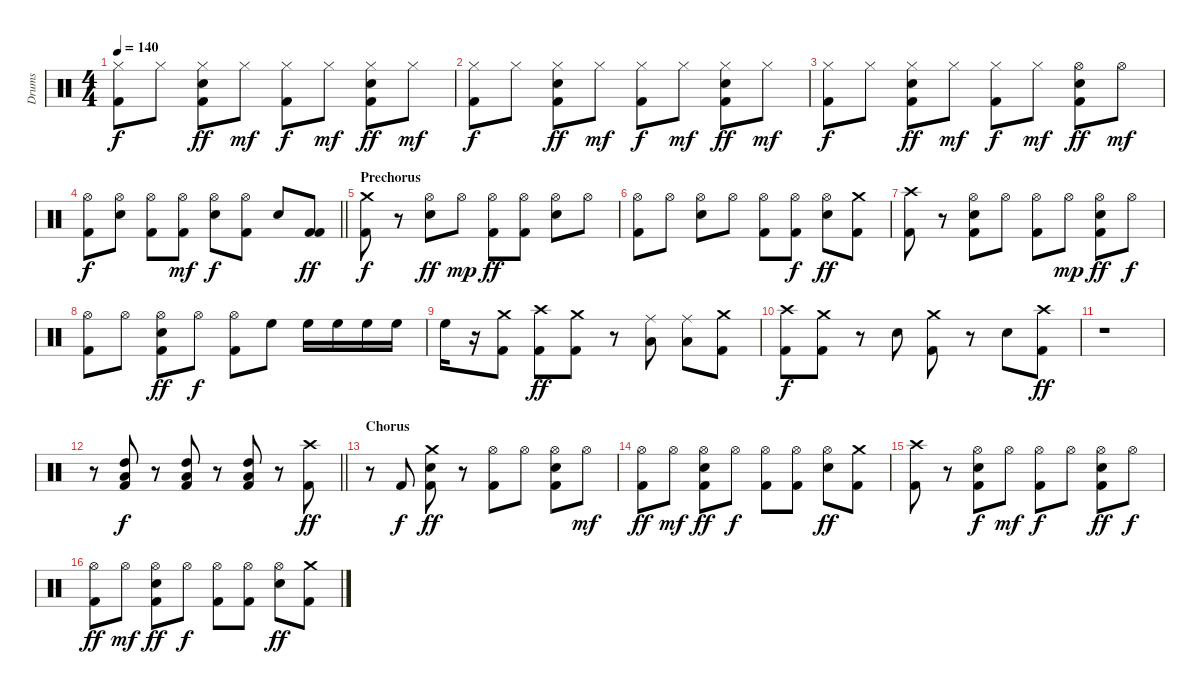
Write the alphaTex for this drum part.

\track ("Drums" "Drums") {instrument percussion}
\staff {score}
\articulation defaults
\ts (4 4)
\tempo 140
\clef neutral
\ks c
("Hi-Hat (closed)" "Kick (hit) 2").8{dy f} "Hi-Hat (closed)".8 ("Hi-Hat (closed)" "Electric Snare (hit)" "Kick (hit) 2").8{dy ff} "Hi-Hat (closed)".8{dy mf} ("Hi-Hat (closed)" "Kick (hit) 2").8{dy f} "Hi-Hat (closed)".8{dy mf} ("Hi-Hat (closed)" "Electric Snare (hit)" "Kick (hit) 2").8{dy ff} "Hi-Hat (closed)".8{dy mf} |
("Hi-Hat (closed)" "Kick (hit) 2").8{dy f} "Hi-Hat (closed)".8 ("Hi-Hat (closed)" "Electric Snare (hit)" "Kick (hit) 2").8{dy ff} "Hi-Hat (closed)".8{dy mf} ("Hi-Hat (closed)" "Kick (hit) 2").8{dy f} "Hi-Hat (closed)".8{dy mf} ("Hi-Hat (closed)" "Electric Snare (hit)" "Kick (hit) 2").8{dy ff} "Hi-Hat (closed)".8{dy mf} |
("Hi-Hat (closed)" "Kick (hit) 2").8{dy f} "Hi-Hat (closed)".8 ("Hi-Hat (closed)" "Electric Snare (hit)" "Kick (hit) 2").8{dy ff} "Hi-Hat (closed)".8{dy mf} ("Hi-Hat (closed)" "Kick (hit) 2").8{dy f} "Hi-Hat (closed)".8{dy mf} ("Hi-Hat (open)" "Electric Snare (hit)" "Kick (hit) 2").8{dy ff} "Hi-Hat (open)".8{dy mf} |
\barLineRight lightlight
("Hi-Hat (open)" "Kick (hit) 2").8{dy f} ("Hi-Hat (open)" "Electric Snare (hit)").8 ("Hi-Hat (open)" "Kick (hit) 2").8 ("Hi-Hat (open)" "Kick (hit) 2").8{dy mf} ("Hi-Hat (open)" "Electric Snare (hit)").8{dy f} ("Hi-Hat (open)" "Kick (hit) 2").8 "Electric Snare (hit)".8 ("Kick (hit) 2" "Kick (hit) 2").8{dy ff} |
\section ("" "Prechorus")
("Crash medium (hit)" "Kick (hit) 2").8{dy f} r.8 ("Hi-Hat (open)" "Electric Snare (hit)").8{dy ff} "Hi-Hat (open)".8{dy mp} ("Hi-Hat (open)" "Kick (hit) 2").8{dy ff} ("Hi-Hat (open)" "Kick (hit) 2").8 ("Hi-Hat (open)" "Electric Snare (hit)").8 "Hi-Hat (open)".8 |
("Hi-Hat (open)" "Kick (hit) 2").8 "Hi-Hat (open)".8 ("Hi-Hat (open)" "Electric Snare (hit)").8 "Hi-Hat (open)".8 ("Hi-Hat (open)" "Kick (hit) 2").8 ("Hi-Hat (open)" "Kick (hit) 2").8{dy f} ("Hi-Hat (open)" "Electric Snare (hit)").8{dy ff} ("Crash medium (hit)" "Kick (hit) 2").8 |
("Crash high (hit)" "Kick (hit) 2").8 r.8 ("Hi-Hat (open)" "Electric Snare (hit)" "Kick (hit) 2").8 "Hi-Hat (open)".8 ("Hi-Hat (open)" "Kick (hit) 2").8 "Hi-Hat (open)".8{dy mp} ("Hi-Hat (open)" "Electric Snare (hit)" "Kick (hit) 2").8{dy ff} "Hi-Hat (open)".8{dy f} |
("Hi-Hat (open)" "Kick (hit) 2").8 "Hi-Hat (open)".8 ("Hi-Hat (open)" "Electric Snare (hit)" "Kick (hit) 2").8{dy ff} "Hi-Hat (open)".8{dy f} ("Hi-Hat (open)" "Kick (hit) 2").8 "High Floor Tom (hit)".8 "High Floor Tom (hit)".16 "High Floor Tom (hit)".16 "High Floor Tom (hit)".16 "High Floor Tom (hit)".16 |
"High Floor Tom (hit)".16 r.16 ("Crash medium (hit)" "Kick (hit) 2").8 ("Crash high (hit)" "Kick (hit) 2").8{dy ff} ("Crash medium (hit)" "Kick (hit) 2").8 r.8 ("Ride (middle)" "Low Floor Tom (hit)").8 ("Ride (middle)" "Low Floor Tom (hit)").8 ("Crash medium (hit)" "Kick (hit) 2").8 |
("Crash high (hit)" "Kick (hit) 2").8{dy f} ("Crash medium (hit)" "Kick (hit) 2").8 r.8 "Electric Snare (hit)".8 ("Crash medium (hit)" "Kick (hit) 2").8 r.8 "Electric Snare (hit)".8 ("Crash high (hit)" "Kick (hit) 2").8{dy ff} |
r.1 |
\barLineRight lightlight
r.8 ("High Tom (hit)" "Low Floor Tom (hit)" "Kick (hit) 2").8{dy f} r.8 ("High Tom (hit)" "Low Floor Tom (hit)" "Kick (hit) 2").8 r.8 ("High Tom (hit)" "Low Floor Tom (hit)" "Kick (hit) 2").8 r.8 ("Crash high (hit)" "Kick (hit) 2").8{dy ff} |
\section ("" "Chorus")
r.8 "Kick (hit) 2".8{dy f} ("Crash medium (hit)" "Electric Snare (hit)" "Kick (hit) 2").8{dy ff} r.8 ("Hi-Hat (open)" "Kick (hit) 2").8 "Hi-Hat (open)".8 ("Hi-Hat (open)" "Electric Snare (hit)" "Kick (hit) 2").8 "Hi-Hat (open)".8{dy mf} |
("Hi-Hat (open)" "Kick (hit) 2").8{dy ff} "Hi-Hat (open)".8{dy mf} ("Hi-Hat (open)" "Electric Snare (hit)" "Kick (hit) 2").8{dy ff} "Hi-Hat (open)".8{dy f} ("Hi-Hat (open)" "Kick (hit) 2").8 ("Hi-Hat (open)" "Kick (hit) 2").8 ("Hi-Hat (open)" "Electric Snare (hit)").8{dy ff} ("Crash medium (hit)" "Kick (hit) 2").8 |
("Crash high (hit)" "Kick (hit) 2").8 r.8 ("Hi-Hat (open)" "Electric Snare (hit)" "Kick (hit) 2").8{dy f} "Hi-Hat (open)".8{dy mf} ("Hi-Hat (open)" "Kick (hit) 2").8{dy f} "Hi-Hat (open)".8 ("Hi-Hat (open)" "Electric Snare (hit)" "Kick (hit) 2").8{dy ff} "Hi-Hat (open)".8{dy f} |
("Hi-Hat (open)" "Kick (hit) 2").8{dy ff} "Hi-Hat (open)".8{dy mf} ("Hi-Hat (open)" "Electric Snare (hit)" "Kick (hit) 2").8{dy ff} "Hi-Hat (open)".8{dy f} ("Hi-Hat (open)" "Kick (hit) 2").8 ("Hi-Hat (open)" "Kick (hit) 2").8 ("Hi-Hat (open)" "Electric Snare (hit)").8{dy ff} ("Crash medium (hit)" "Kick (hit) 2").8
